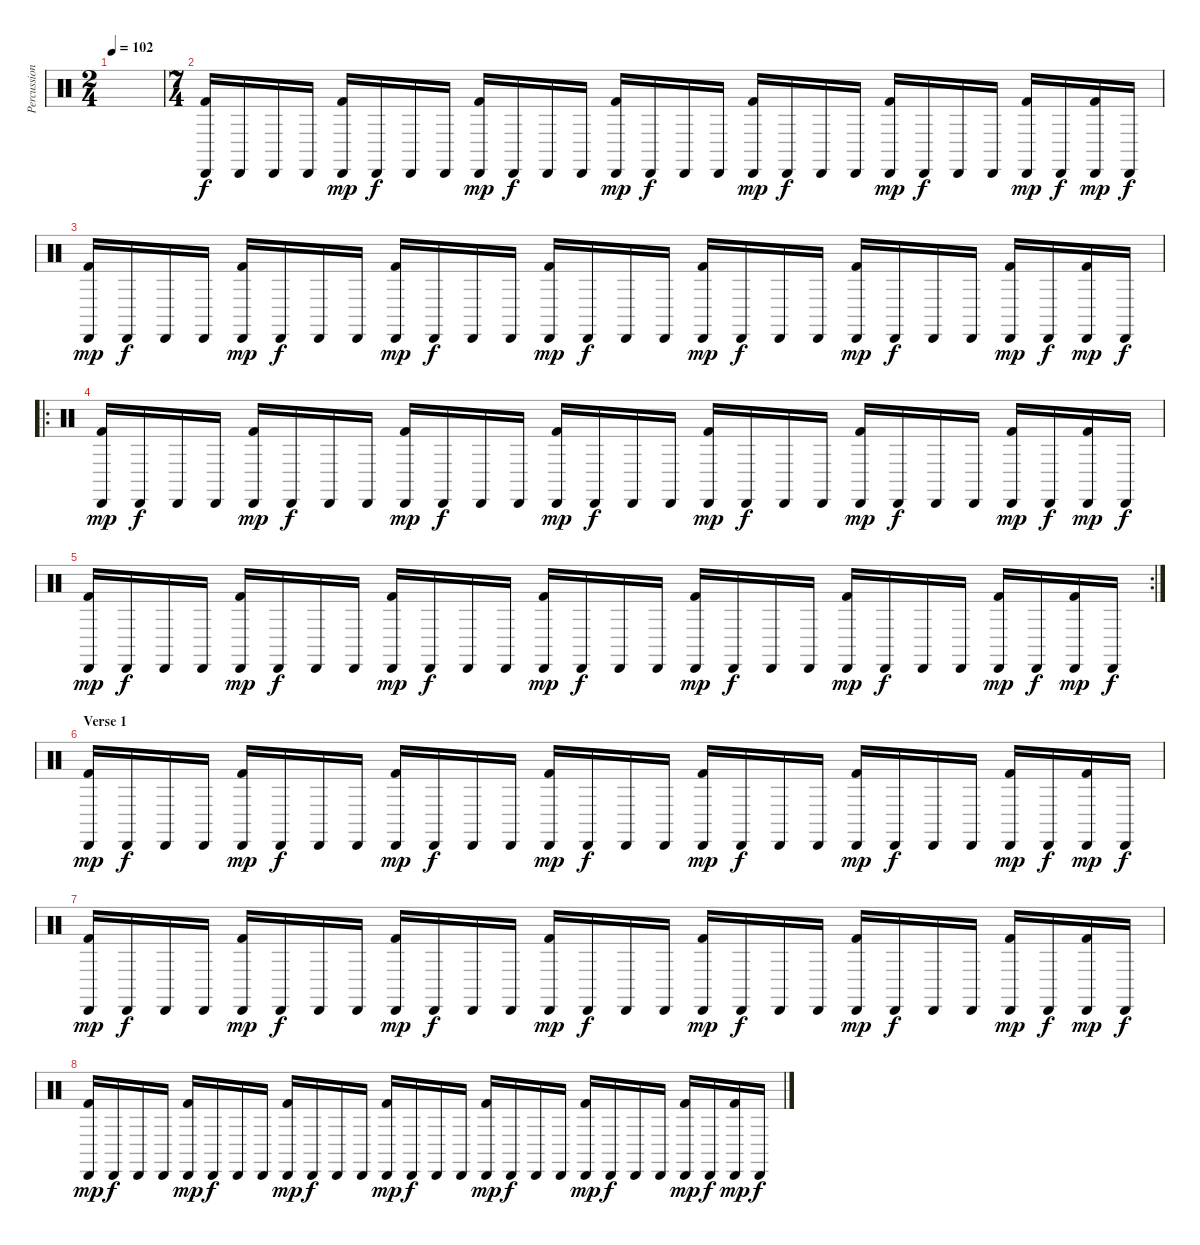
\track ("Percussion" "Percussion") {instrument percussion}
\staff {score}
\articulation defaults
\ts (2 4)
\tempo 102
\clef neutral
\ks c
|
\ts (7 4)
("Cabasa (hit)" "Kick (hit) 2").16 "Cabasa (hit)".16{dy f} "Cabasa (hit)".16 "Cabasa (hit)".16 ("Cabasa (hit)" "Kick (hit) 2").16{dy mp} "Cabasa (hit)".16{dy f} "Cabasa (hit)".16 "Cabasa (hit)".16 ("Cabasa (hit)" "Kick (hit) 2").16{dy mp} "Cabasa (hit)".16{dy f} "Cabasa (hit)".16 "Cabasa (hit)".16 ("Cabasa (hit)" "Kick (hit) 2").16{dy mp} "Cabasa (hit)".16{dy f} "Cabasa (hit)".16 "Cabasa (hit)".16 ("Cabasa (hit)" "Kick (hit) 2").16{dy mp} "Cabasa (hit)".16{dy f} "Cabasa (hit)".16 "Cabasa (hit)".16 ("Cabasa (hit)" "Kick (hit) 2").16{dy mp} "Cabasa (hit)".16{dy f} "Cabasa (hit)".16 "Cabasa (hit)".16 ("Cabasa (hit)" "Kick (hit) 2").16{dy mp} "Cabasa (hit)".16{dy f} ("Cabasa (hit)" "Kick (hit) 2").16{dy mp} "Cabasa (hit)".16{dy f} |
("Cabasa (hit)" "Kick (hit) 2").16{dy mp} "Cabasa (hit)".16{dy f} "Cabasa (hit)".16 "Cabasa (hit)".16 ("Cabasa (hit)" "Kick (hit) 2").16{dy mp} "Cabasa (hit)".16{dy f} "Cabasa (hit)".16 "Cabasa (hit)".16 ("Cabasa (hit)" "Kick (hit) 2").16{dy mp} "Cabasa (hit)".16{dy f} "Cabasa (hit)".16 "Cabasa (hit)".16 ("Cabasa (hit)" "Kick (hit) 2").16{dy mp} "Cabasa (hit)".16{dy f} "Cabasa (hit)".16 "Cabasa (hit)".16 ("Cabasa (hit)" "Kick (hit) 2").16{dy mp} "Cabasa (hit)".16{dy f} "Cabasa (hit)".16 "Cabasa (hit)".16 ("Cabasa (hit)" "Kick (hit) 2").16{dy mp} "Cabasa (hit)".16{dy f} "Cabasa (hit)".16 "Cabasa (hit)".16 ("Cabasa (hit)" "Kick (hit) 2").16{dy mp} "Cabasa (hit)".16{dy f} ("Cabasa (hit)" "Kick (hit) 2").16{dy mp} "Cabasa (hit)".16{dy f} |
\ro
("Cabasa (hit)" "Kick (hit) 2").16{dy mp} "Cabasa (hit)".16{dy f} "Cabasa (hit)".16 "Cabasa (hit)".16 ("Cabasa (hit)" "Kick (hit) 2").16{dy mp} "Cabasa (hit)".16{dy f} "Cabasa (hit)".16 "Cabasa (hit)".16 ("Cabasa (hit)" "Kick (hit) 2").16{dy mp} "Cabasa (hit)".16{dy f} "Cabasa (hit)".16 "Cabasa (hit)".16 ("Cabasa (hit)" "Kick (hit) 2").16{dy mp} "Cabasa (hit)".16{dy f} "Cabasa (hit)".16 "Cabasa (hit)".16 ("Cabasa (hit)" "Kick (hit) 2").16{dy mp} "Cabasa (hit)".16{dy f} "Cabasa (hit)".16 "Cabasa (hit)".16 ("Cabasa (hit)" "Kick (hit) 2").16{dy mp} "Cabasa (hit)".16{dy f} "Cabasa (hit)".16 "Cabasa (hit)".16 ("Cabasa (hit)" "Kick (hit) 2").16{dy mp} "Cabasa (hit)".16{dy f} ("Cabasa (hit)" "Kick (hit) 2").16{dy mp} "Cabasa (hit)".16{dy f} |
\rc 2
("Cabasa (hit)" "Kick (hit) 2").16{dy mp} "Cabasa (hit)".16{dy f} "Cabasa (hit)".16 "Cabasa (hit)".16 ("Cabasa (hit)" "Kick (hit) 2").16{dy mp} "Cabasa (hit)".16{dy f} "Cabasa (hit)".16 "Cabasa (hit)".16 ("Cabasa (hit)" "Kick (hit) 2").16{dy mp} "Cabasa (hit)".16{dy f} "Cabasa (hit)".16 "Cabasa (hit)".16 ("Cabasa (hit)" "Kick (hit) 2").16{dy mp} "Cabasa (hit)".16{dy f} "Cabasa (hit)".16 "Cabasa (hit)".16 ("Cabasa (hit)" "Kick (hit) 2").16{dy mp} "Cabasa (hit)".16{dy f} "Cabasa (hit)".16 "Cabasa (hit)".16 ("Cabasa (hit)" "Kick (hit) 2").16{dy mp} "Cabasa (hit)".16{dy f} "Cabasa (hit)".16 "Cabasa (hit)".16 ("Cabasa (hit)" "Kick (hit) 2").16{dy mp} "Cabasa (hit)".16{dy f} ("Cabasa (hit)" "Kick (hit) 2").16{dy mp} "Cabasa (hit)".16{dy f} |
\section ("" "Verse 1")
("Cabasa (hit)" "Kick (hit) 2").16{dy mp} "Cabasa (hit)".16{dy f} "Cabasa (hit)".16 "Cabasa (hit)".16 ("Cabasa (hit)" "Kick (hit) 2").16{dy mp} "Cabasa (hit)".16{dy f} "Cabasa (hit)".16 "Cabasa (hit)".16 ("Cabasa (hit)" "Kick (hit) 2").16{dy mp} "Cabasa (hit)".16{dy f} "Cabasa (hit)".16 "Cabasa (hit)".16 ("Cabasa (hit)" "Kick (hit) 2").16{dy mp} "Cabasa (hit)".16{dy f} "Cabasa (hit)".16 "Cabasa (hit)".16 ("Cabasa (hit)" "Kick (hit) 2").16{dy mp} "Cabasa (hit)".16{dy f} "Cabasa (hit)".16 "Cabasa (hit)".16 ("Cabasa (hit)" "Kick (hit) 2").16{dy mp} "Cabasa (hit)".16{dy f} "Cabasa (hit)".16 "Cabasa (hit)".16 ("Cabasa (hit)" "Kick (hit) 2").16{dy mp} "Cabasa (hit)".16{dy f} ("Cabasa (hit)" "Kick (hit) 2").16{dy mp} "Cabasa (hit)".16{dy f} |
("Cabasa (hit)" "Kick (hit) 2").16{dy mp} "Cabasa (hit)".16{dy f} "Cabasa (hit)".16 "Cabasa (hit)".16 ("Cabasa (hit)" "Kick (hit) 2").16{dy mp} "Cabasa (hit)".16{dy f} "Cabasa (hit)".16 "Cabasa (hit)".16 ("Cabasa (hit)" "Kick (hit) 2").16{dy mp} "Cabasa (hit)".16{dy f} "Cabasa (hit)".16 "Cabasa (hit)".16 ("Cabasa (hit)" "Kick (hit) 2").16{dy mp} "Cabasa (hit)".16{dy f} "Cabasa (hit)".16 "Cabasa (hit)".16 ("Cabasa (hit)" "Kick (hit) 2").16{dy mp} "Cabasa (hit)".16{dy f} "Cabasa (hit)".16 "Cabasa (hit)".16 ("Cabasa (hit)" "Kick (hit) 2").16{dy mp} "Cabasa (hit)".16{dy f} "Cabasa (hit)".16 "Cabasa (hit)".16 ("Cabasa (hit)" "Kick (hit) 2").16{dy mp} "Cabasa (hit)".16{dy f} ("Cabasa (hit)" "Kick (hit) 2").16{dy mp} "Cabasa (hit)".16{dy f} |
("Cabasa (hit)" "Kick (hit) 2").16{dy mp} "Cabasa (hit)".16{dy f} "Cabasa (hit)".16 "Cabasa (hit)".16 ("Cabasa (hit)" "Kick (hit) 2").16{dy mp} "Cabasa (hit)".16{dy f} "Cabasa (hit)".16 "Cabasa (hit)".16 ("Cabasa (hit)" "Kick (hit) 2").16{dy mp} "Cabasa (hit)".16{dy f} "Cabasa (hit)".16 "Cabasa (hit)".16 ("Cabasa (hit)" "Kick (hit) 2").16{dy mp} "Cabasa (hit)".16{dy f} "Cabasa (hit)".16 "Cabasa (hit)".16 ("Cabasa (hit)" "Kick (hit) 2").16{dy mp} "Cabasa (hit)".16{dy f} "Cabasa (hit)".16 "Cabasa (hit)".16 ("Cabasa (hit)" "Kick (hit) 2").16{dy mp} "Cabasa (hit)".16{dy f} "Cabasa (hit)".16 "Cabasa (hit)".16 ("Cabasa (hit)" "Kick (hit) 2").16{dy mp} "Cabasa (hit)".16{dy f} ("Cabasa (hit)" "Kick (hit) 2").16{dy mp} "Cabasa (hit)".16{dy f}
